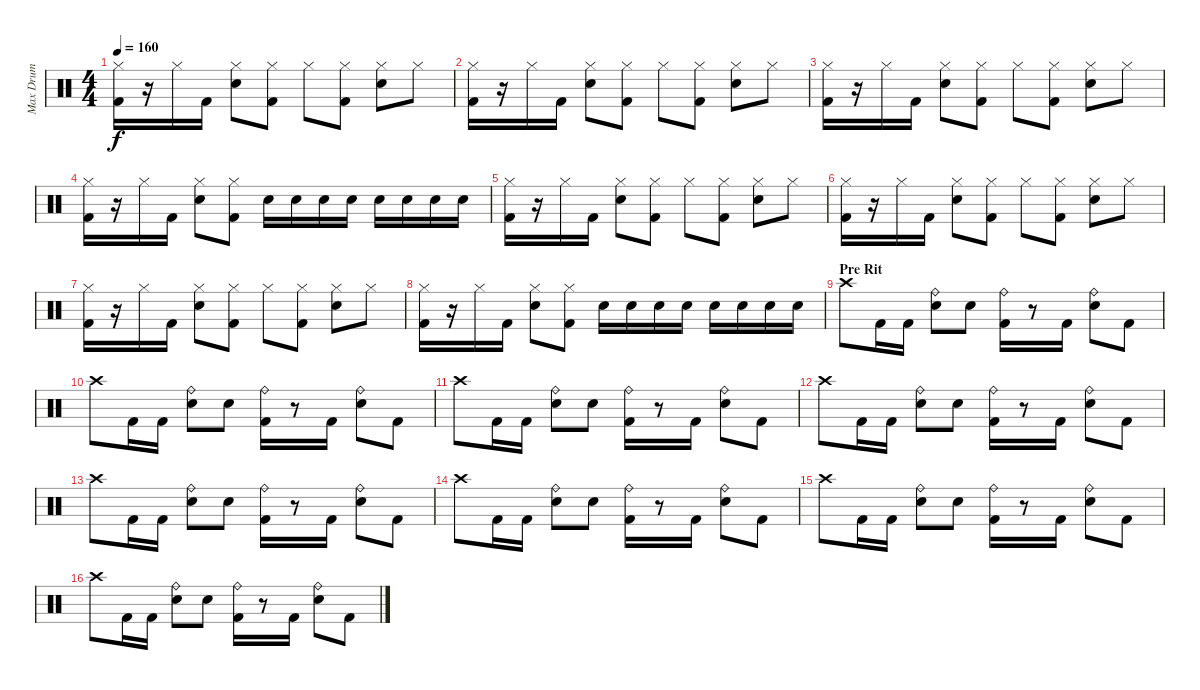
\track ("Max Drum" "Max Drum") {instrument percussion}
\staff {score}
\articulation defaults
\ts (4 4)
\tempo 160
\clef neutral
\ks c
("Hi-Hat (closed)" "Kick (hit) 2").16{dy f} r.16 "Hi-Hat (closed)".16 "Kick (hit) 2".16 ("Hi-Hat (closed)" "Snare (hit) 2").8 ("Hi-Hat (closed)" "Kick (hit) 2").8 "Hi-Hat (closed)".8 ("Hi-Hat (closed)" "Kick (hit) 2").8 ("Hi-Hat (closed)" "Snare (hit) 2").8 "Hi-Hat (closed)".8 |
("Hi-Hat (closed)" "Kick (hit) 2").16 r.16 "Hi-Hat (closed)".16 "Kick (hit) 2".16 ("Hi-Hat (closed)" "Snare (hit) 2").8 ("Hi-Hat (closed)" "Kick (hit) 2").8 "Hi-Hat (closed)".8 ("Hi-Hat (closed)" "Kick (hit) 2").8 ("Hi-Hat (closed)" "Snare (hit) 2").8 "Hi-Hat (closed)".8 |
("Hi-Hat (closed)" "Kick (hit) 2").16 r.16 "Hi-Hat (closed)".16 "Kick (hit) 2".16 ("Hi-Hat (closed)" "Snare (hit) 2").8 ("Hi-Hat (closed)" "Kick (hit) 2").8 "Hi-Hat (closed)".8 ("Hi-Hat (closed)" "Kick (hit) 2").8 ("Hi-Hat (closed)" "Snare (hit) 2").8 "Hi-Hat (closed)".8 |
("Hi-Hat (closed)" "Kick (hit) 2").16 r.16 "Hi-Hat (closed)".16 "Kick (hit) 2".16 ("Hi-Hat (closed)" "Snare (hit) 2").8 ("Hi-Hat (closed)" "Kick (hit) 2").8 "Snare (hit) 2".16 "Snare (hit) 2".16 "Snare (hit) 2".16 "Snare (hit) 2".16 "Snare (hit) 2".16 "Snare (hit) 2".16 "Snare (hit) 2".16 "Snare (hit) 2".16 |
("Hi-Hat (closed)" "Kick (hit) 2").16 r.16 "Hi-Hat (closed)".16 "Kick (hit) 2".16 ("Hi-Hat (closed)" "Snare (hit) 2").8 ("Hi-Hat (closed)" "Kick (hit) 2").8 "Hi-Hat (closed)".8 ("Hi-Hat (closed)" "Kick (hit) 2").8 ("Hi-Hat (closed)" "Snare (hit) 2").8 "Hi-Hat (closed)".8 |
("Hi-Hat (closed)" "Kick (hit) 2").16 r.16 "Hi-Hat (closed)".16 "Kick (hit) 2".16 ("Hi-Hat (closed)" "Snare (hit) 2").8 ("Hi-Hat (closed)" "Kick (hit) 2").8 "Hi-Hat (closed)".8 ("Hi-Hat (closed)" "Kick (hit) 2").8 ("Hi-Hat (closed)" "Snare (hit) 2").8 "Hi-Hat (closed)".8 |
("Hi-Hat (closed)" "Kick (hit) 2").16 r.16 "Hi-Hat (closed)".16 "Kick (hit) 2".16 ("Hi-Hat (closed)" "Snare (hit) 2").8 ("Hi-Hat (closed)" "Kick (hit) 2").8 "Hi-Hat (closed)".8 ("Hi-Hat (closed)" "Kick (hit) 2").8 ("Hi-Hat (closed)" "Snare (hit) 2").8 "Hi-Hat (closed)".8 |
("Hi-Hat (closed)" "Kick (hit) 2").16 r.16 "Hi-Hat (closed)".16 "Kick (hit) 2".16 ("Hi-Hat (closed)" "Snare (hit) 2").8 ("Hi-Hat (closed)" "Kick (hit) 2").8 "Snare (hit) 2".16 "Snare (hit) 2".16 "Snare (hit) 2".16 "Snare (hit) 2".16 "Snare (hit) 2".16 "Snare (hit) 2".16 "Snare (hit) 2".16 "Snare (hit) 2".16 |
\section ("" "Pre Rit")
"Crash high (hit)".8 "Kick (hit) 2".16 "Kick (hit) 2".16 ("Ride (bell)" "Snare (hit) 2").8 "Snare (hit) 2".8 ("Ride (bell)" "Kick (hit) 2").16 r.8 "Kick (hit) 2".16 ("Ride (bell)" "Snare (hit) 2").8 "Kick (hit) 2".8 |
"Crash high (hit)".8 "Kick (hit) 2".16 "Kick (hit) 2".16 ("Ride (bell)" "Snare (hit) 2").8 "Snare (hit) 2".8 ("Ride (bell)" "Kick (hit) 2").16 r.8 "Kick (hit) 2".16 ("Ride (bell)" "Snare (hit) 2").8 "Kick (hit) 2".8 |
"Crash high (hit)".8 "Kick (hit) 2".16 "Kick (hit) 2".16 ("Ride (bell)" "Snare (hit) 2").8 "Snare (hit) 2".8 ("Ride (bell)" "Kick (hit) 2").16 r.8 "Kick (hit) 2".16 ("Ride (bell)" "Snare (hit) 2").8 "Kick (hit) 2".8 |
"Crash high (hit)".8 "Kick (hit) 2".16 "Kick (hit) 2".16 ("Ride (bell)" "Snare (hit) 2").8 "Snare (hit) 2".8 ("Ride (bell)" "Kick (hit) 2").16 r.8 "Kick (hit) 2".16 ("Ride (bell)" "Snare (hit) 2").8 "Kick (hit) 2".8 |
"Crash high (hit)".8 "Kick (hit) 2".16 "Kick (hit) 2".16 ("Ride (bell)" "Snare (hit) 2").8 "Snare (hit) 2".8 ("Ride (bell)" "Kick (hit) 2").16 r.8 "Kick (hit) 2".16 ("Ride (bell)" "Snare (hit) 2").8 "Kick (hit) 2".8 |
"Crash high (hit)".8 "Kick (hit) 2".16 "Kick (hit) 2".16 ("Ride (bell)" "Snare (hit) 2").8 "Snare (hit) 2".8 ("Ride (bell)" "Kick (hit) 2").16 r.8 "Kick (hit) 2".16 ("Ride (bell)" "Snare (hit) 2").8 "Kick (hit) 2".8 |
"Crash high (hit)".8 "Kick (hit) 2".16 "Kick (hit) 2".16 ("Ride (bell)" "Snare (hit) 2").8 "Snare (hit) 2".8 ("Ride (bell)" "Kick (hit) 2").16 r.8 "Kick (hit) 2".16 ("Ride (bell)" "Snare (hit) 2").8 "Kick (hit) 2".8 |
"Crash high (hit)".8 "Kick (hit) 2".16 "Kick (hit) 2".16 ("Ride (bell)" "Snare (hit) 2").8 "Snare (hit) 2".8 ("Ride (bell)" "Kick (hit) 2").16 r.8 "Kick (hit) 2".16 ("Ride (bell)" "Snare (hit) 2").8 "Kick (hit) 2".8
